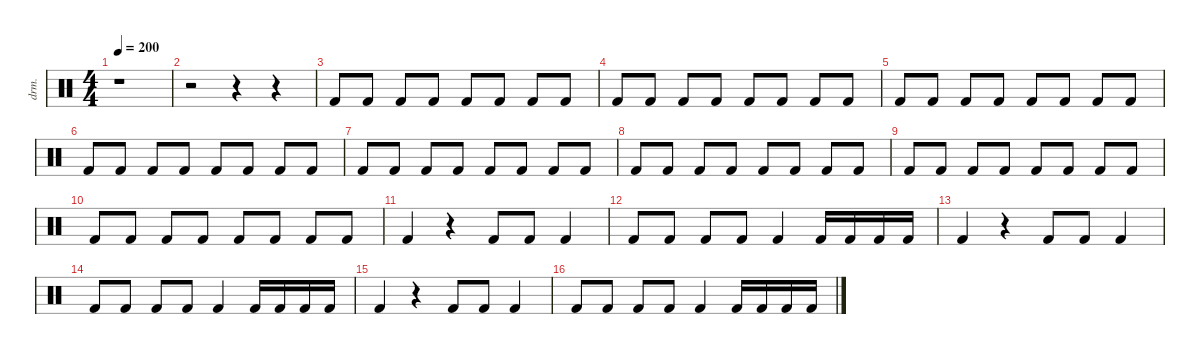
\defaultSystemsLayout 4
\hideDynamics
\bracketExtendMode nobrackets
\track ("Percussion" "drm.") {instrument percussion}
\staff {score}
\articulation defaults
\ts (4 4)
\tempo 200
\clef neutral
\ks c
r.1{dy ff} |
r.2 r.4 r.4 |
"Kick (hit) 2".8 "Kick (hit) 2".8 "Kick (hit) 2".8 "Kick (hit) 2".8 "Kick (hit) 2".8 "Kick (hit) 2".8 "Kick (hit) 2".8 "Kick (hit) 2".8 |
"Kick (hit) 2".8 "Kick (hit) 2".8 "Kick (hit) 2".8 "Kick (hit) 2".8 "Kick (hit) 2".8 "Kick (hit) 2".8 "Kick (hit) 2".8 "Kick (hit) 2".8 |
"Kick (hit) 2".8 "Kick (hit) 2".8 "Kick (hit) 2".8 "Kick (hit) 2".8 "Kick (hit) 2".8 "Kick (hit) 2".8 "Kick (hit) 2".8 "Kick (hit) 2".8 |
"Kick (hit) 2".8 "Kick (hit) 2".8 "Kick (hit) 2".8 "Kick (hit) 2".8 "Kick (hit) 2".8 "Kick (hit) 2".8 "Kick (hit) 2".8 "Kick (hit) 2".8 |
"Kick (hit) 2".8 "Kick (hit) 2".8 "Kick (hit) 2".8 "Kick (hit) 2".8 "Kick (hit) 2".8 "Kick (hit) 2".8 "Kick (hit) 2".8 "Kick (hit) 2".8 |
"Kick (hit) 2".8 "Kick (hit) 2".8 "Kick (hit) 2".8 "Kick (hit) 2".8 "Kick (hit) 2".8 "Kick (hit) 2".8 "Kick (hit) 2".8 "Kick (hit) 2".8 |
"Kick (hit) 2".8 "Kick (hit) 2".8 "Kick (hit) 2".8 "Kick (hit) 2".8 "Kick (hit) 2".8 "Kick (hit) 2".8 "Kick (hit) 2".8 "Kick (hit) 2".8 |
"Kick (hit) 2".8 "Kick (hit) 2".8 "Kick (hit) 2".8 "Kick (hit) 2".8 "Kick (hit) 2".8 "Kick (hit) 2".8 "Kick (hit) 2".8 "Kick (hit) 2".8 |
"Kick (hit) 2".4 r.4 "Kick (hit) 2".8 "Kick (hit) 2".8 "Kick (hit) 2".4 |
"Kick (hit) 2".8 "Kick (hit) 2".8 "Kick (hit) 2".8 "Kick (hit) 2".8 "Kick (hit) 2".4 "Kick (hit) 2".16 "Kick (hit) 2".16 "Kick (hit) 2".16 "Kick (hit) 2".16 |
"Kick (hit) 2".4 r.4 "Kick (hit) 2".8 "Kick (hit) 2".8 "Kick (hit) 2".4 |
"Kick (hit) 2".8 "Kick (hit) 2".8 "Kick (hit) 2".8 "Kick (hit) 2".8 "Kick (hit) 2".4 "Kick (hit) 2".16 "Kick (hit) 2".16 "Kick (hit) 2".16 "Kick (hit) 2".16 |
"Kick (hit) 2".4 r.4 "Kick (hit) 2".8 "Kick (hit) 2".8 "Kick (hit) 2".4 |
"Kick (hit) 2".8 "Kick (hit) 2".8 "Kick (hit) 2".8 "Kick (hit) 2".8 "Kick (hit) 2".4 "Kick (hit) 2".16 "Kick (hit) 2".16 "Kick (hit) 2".16 "Kick (hit) 2".16
